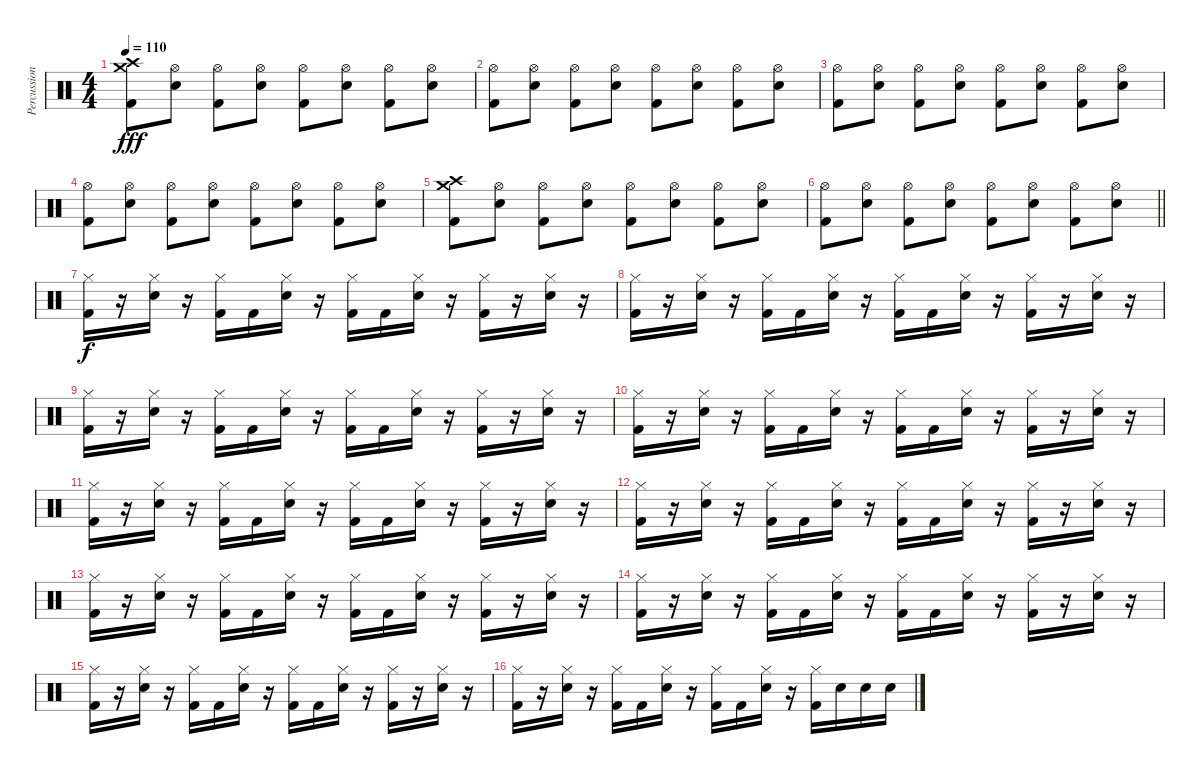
\track ("Percussion" "Percussion") {instrument percussion}
\staff {score}
\articulation defaults
\ts (4 4)
\tempo 110
\clef neutral
\ks c
("Kick (hit) 2" "Crash medium (hit)" "Crash high (hit)").8{dy fff} ("Electric Snare (hit)" "Hi-Hat (open)").8 ("Kick (hit) 2" "Hi-Hat (open)").8 ("Electric Snare (hit)" "Hi-Hat (open)").8 ("Kick (hit) 2" "Hi-Hat (open)").8 ("Electric Snare (hit)" "Hi-Hat (open)").8 ("Kick (hit) 2" "Hi-Hat (open)").8 ("Electric Snare (hit)" "Hi-Hat (open)").8 |
("Kick (hit) 2" "Hi-Hat (open)").8 ("Electric Snare (hit)" "Hi-Hat (open)").8 ("Kick (hit) 2" "Hi-Hat (open)").8 ("Electric Snare (hit)" "Hi-Hat (open)").8 ("Kick (hit) 2" "Hi-Hat (open)").8 ("Electric Snare (hit)" "Hi-Hat (open)").8 ("Kick (hit) 2" "Hi-Hat (open)").8 ("Electric Snare (hit)" "Hi-Hat (open)").8 |
("Kick (hit) 2" "Hi-Hat (open)").8 ("Electric Snare (hit)" "Hi-Hat (open)").8 ("Kick (hit) 2" "Hi-Hat (open)").8 ("Electric Snare (hit)" "Hi-Hat (open)").8 ("Kick (hit) 2" "Hi-Hat (open)").8 ("Electric Snare (hit)" "Hi-Hat (open)").8 ("Kick (hit) 2" "Hi-Hat (open)").8 ("Electric Snare (hit)" "Hi-Hat (open)").8 |
("Kick (hit) 2" "Hi-Hat (open)").8 ("Electric Snare (hit)" "Hi-Hat (open)").8 ("Kick (hit) 2" "Hi-Hat (open)").8 ("Electric Snare (hit)" "Hi-Hat (open)").8 ("Kick (hit) 2" "Hi-Hat (open)").8 ("Electric Snare (hit)" "Hi-Hat (open)").8 ("Kick (hit) 2" "Hi-Hat (open)").8 ("Electric Snare (hit)" "Hi-Hat (open)").8 |
("Kick (hit) 2" "Crash medium (hit)" "Crash high (hit)").8 ("Electric Snare (hit)" "Hi-Hat (open)").8 ("Kick (hit) 2" "Hi-Hat (open)").8 ("Electric Snare (hit)" "Hi-Hat (open)").8 ("Kick (hit) 2" "Hi-Hat (open)").8 ("Electric Snare (hit)" "Hi-Hat (open)").8 ("Kick (hit) 2" "Hi-Hat (open)").8 ("Electric Snare (hit)" "Hi-Hat (open)").8 |
\barLineRight lightlight
("Kick (hit) 2" "Hi-Hat (open)").8 ("Electric Snare (hit)" "Hi-Hat (open)").8 ("Kick (hit) 2" "Hi-Hat (open)").8 ("Electric Snare (hit)" "Hi-Hat (open)").8 ("Kick (hit) 2" "Hi-Hat (open)").8 ("Electric Snare (hit)" "Hi-Hat (open)").8 ("Kick (hit) 2" "Hi-Hat (open)").8 ("Electric Snare (hit)" "Hi-Hat (open)").8 |
("Kick (hit) 2" "Hi-Hat (closed)").16{dy f} r.16 ("Electric Snare (hit)" "Hi-Hat (closed)").16 r.16 ("Kick (hit) 2" "Hi-Hat (closed)").16 "Kick (hit) 2".16 ("Electric Snare (hit)" "Hi-Hat (closed)").16 r.16 ("Kick (hit) 2" "Hi-Hat (closed)").16 "Kick (hit) 2".16 ("Electric Snare (hit)" "Hi-Hat (closed)").16 r.16 ("Kick (hit) 2" "Hi-Hat (closed)").16 r.16 ("Electric Snare (hit)" "Hi-Hat (closed)").16 r.16 |
("Kick (hit) 2" "Hi-Hat (closed)").16 r.16 ("Electric Snare (hit)" "Hi-Hat (closed)").16 r.16 ("Kick (hit) 2" "Hi-Hat (closed)").16 "Kick (hit) 2".16 ("Electric Snare (hit)" "Hi-Hat (closed)").16 r.16 ("Kick (hit) 2" "Hi-Hat (closed)").16 "Kick (hit) 2".16 ("Electric Snare (hit)" "Hi-Hat (closed)").16 r.16 ("Kick (hit) 2" "Hi-Hat (closed)").16 r.16 ("Electric Snare (hit)" "Hi-Hat (closed)").16 r.16 |
("Kick (hit) 2" "Hi-Hat (closed)").16 r.16 ("Electric Snare (hit)" "Hi-Hat (closed)").16 r.16 ("Kick (hit) 2" "Hi-Hat (closed)").16 "Kick (hit) 2".16 ("Electric Snare (hit)" "Hi-Hat (closed)").16 r.16 ("Kick (hit) 2" "Hi-Hat (closed)").16 "Kick (hit) 2".16 ("Electric Snare (hit)" "Hi-Hat (closed)").16 r.16 ("Kick (hit) 2" "Hi-Hat (closed)").16 r.16 ("Electric Snare (hit)" "Hi-Hat (closed)").16 r.16 |
("Kick (hit) 2" "Hi-Hat (closed)").16 r.16 ("Electric Snare (hit)" "Hi-Hat (closed)").16 r.16 ("Kick (hit) 2" "Hi-Hat (closed)").16 "Kick (hit) 2".16 ("Electric Snare (hit)" "Hi-Hat (closed)").16 r.16 ("Kick (hit) 2" "Hi-Hat (closed)").16 "Kick (hit) 2".16 ("Electric Snare (hit)" "Hi-Hat (closed)").16 r.16 ("Kick (hit) 2" "Hi-Hat (closed)").16 r.16 ("Electric Snare (hit)" "Hi-Hat (closed)").16 r.16 |
("Kick (hit) 2" "Hi-Hat (closed)").16 r.16 ("Electric Snare (hit)" "Hi-Hat (closed)").16 r.16 ("Kick (hit) 2" "Hi-Hat (closed)").16 "Kick (hit) 2".16 ("Electric Snare (hit)" "Hi-Hat (closed)").16 r.16 ("Kick (hit) 2" "Hi-Hat (closed)").16 "Kick (hit) 2".16 ("Electric Snare (hit)" "Hi-Hat (closed)").16 r.16 ("Kick (hit) 2" "Hi-Hat (closed)").16 r.16 ("Electric Snare (hit)" "Hi-Hat (closed)").16 r.16 |
("Kick (hit) 2" "Hi-Hat (closed)").16 r.16 ("Electric Snare (hit)" "Hi-Hat (closed)").16 r.16 ("Kick (hit) 2" "Hi-Hat (closed)").16 "Kick (hit) 2".16 ("Electric Snare (hit)" "Hi-Hat (closed)").16 r.16 ("Kick (hit) 2" "Hi-Hat (closed)").16 "Kick (hit) 2".16 ("Electric Snare (hit)" "Hi-Hat (closed)").16 r.16 ("Kick (hit) 2" "Hi-Hat (closed)").16 r.16 ("Electric Snare (hit)" "Hi-Hat (closed)").16 r.16 |
("Kick (hit) 2" "Hi-Hat (closed)").16 r.16 ("Electric Snare (hit)" "Hi-Hat (closed)").16 r.16 ("Kick (hit) 2" "Hi-Hat (closed)").16 "Kick (hit) 2".16 ("Electric Snare (hit)" "Hi-Hat (closed)").16 r.16 ("Kick (hit) 2" "Hi-Hat (closed)").16 "Kick (hit) 2".16 ("Electric Snare (hit)" "Hi-Hat (closed)").16 r.16 ("Kick (hit) 2" "Hi-Hat (closed)").16 r.16 ("Electric Snare (hit)" "Hi-Hat (closed)").16 r.16 |
("Kick (hit) 2" "Hi-Hat (closed)").16 r.16 ("Electric Snare (hit)" "Hi-Hat (closed)").16 r.16 ("Kick (hit) 2" "Hi-Hat (closed)").16 "Kick (hit) 2".16 ("Electric Snare (hit)" "Hi-Hat (closed)").16 r.16 ("Kick (hit) 2" "Hi-Hat (closed)").16 "Kick (hit) 2".16 ("Electric Snare (hit)" "Hi-Hat (closed)").16 r.16 ("Kick (hit) 2" "Hi-Hat (closed)").16 r.16 ("Electric Snare (hit)" "Hi-Hat (closed)").16 r.16 |
("Kick (hit) 2" "Hi-Hat (closed)").16 r.16 ("Electric Snare (hit)" "Hi-Hat (closed)").16 r.16 ("Kick (hit) 2" "Hi-Hat (closed)").16 "Kick (hit) 2".16 ("Electric Snare (hit)" "Hi-Hat (closed)").16 r.16 ("Kick (hit) 2" "Hi-Hat (closed)").16 "Kick (hit) 2".16 ("Electric Snare (hit)" "Hi-Hat (closed)").16 r.16 ("Kick (hit) 2" "Hi-Hat (closed)").16 r.16 ("Electric Snare (hit)" "Hi-Hat (closed)").16 r.16 |
("Kick (hit) 2" "Hi-Hat (closed)").16 r.16 ("Electric Snare (hit)" "Hi-Hat (closed)").16 r.16 ("Kick (hit) 2" "Hi-Hat (closed)").16 "Kick (hit) 2".16 ("Electric Snare (hit)" "Hi-Hat (closed)").16 r.16 ("Kick (hit) 2" "Hi-Hat (closed)").16 "Kick (hit) 2".16 ("Electric Snare (hit)" "Hi-Hat (closed)").16 r.16 ("Kick (hit) 2" "Hi-Hat (closed)").16 "Electric Snare (hit)".16 "Electric Snare (hit)".16 "Electric Snare (hit)".16
